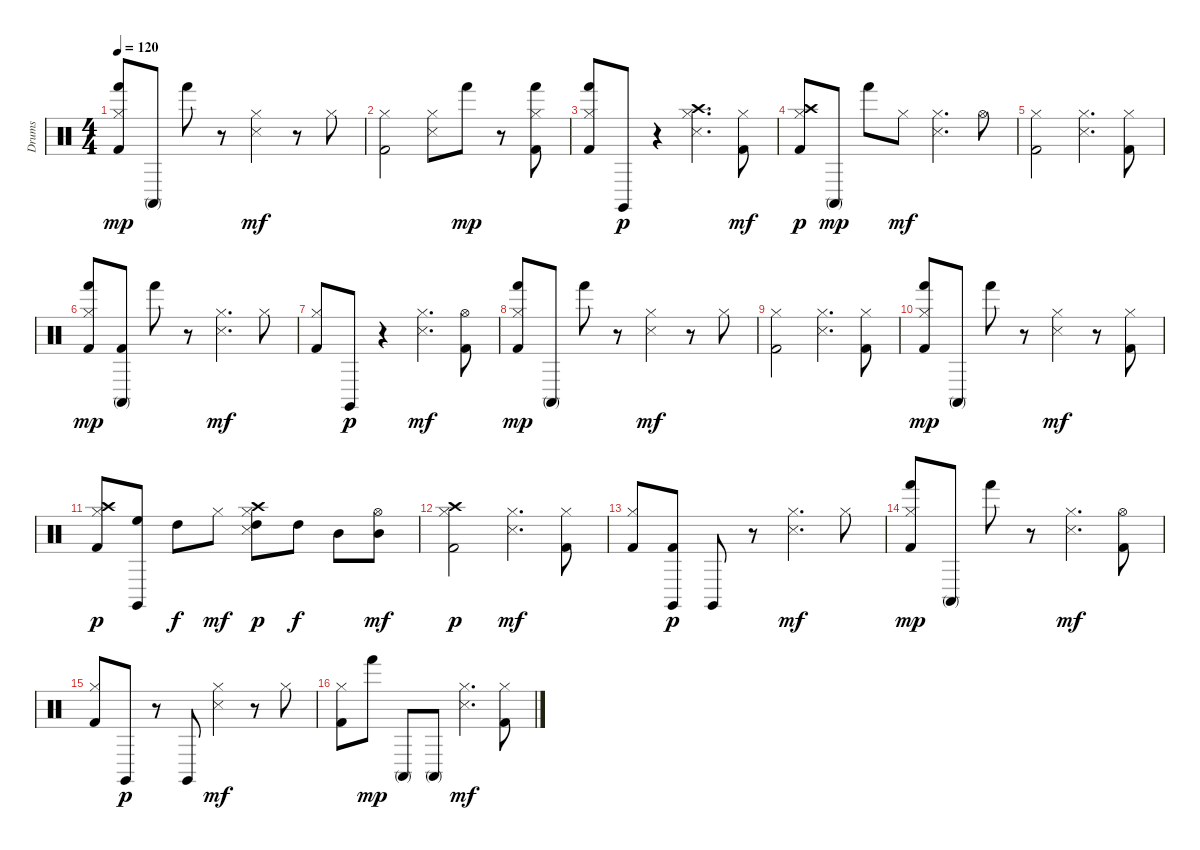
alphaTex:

\track ("Drums" "Drums") {instrument percussion}
\staff {score}
\articulation defaults
\ts (4 4)
\tempo 120
\clef neutral
\ks c
("Kick (hit) 2" "Hi-Hat (closed)" "Hand (hit)").8{dy mp} "Conga high (mute)".8 "Hand (hit)".8 r.8 ("Hi-Hat (closed)" "Snare (side stick) 3").4{dy mf} r.8 "Hi-Hat (closed)".8 |
("Kick (hit) 2" "Hi-Hat (closed)").2 ("Hi-Hat (closed)" "Snare (side stick) 3").8 "Hand (hit)".8{dy mp} r.8 ("Kick (hit) 2" "Hi-Hat (closed)" "Hand (hit)").8 |
("Kick (hit) 2" "Hi-Hat (closed)" "Hand (hit)").8 "Claves (hit)".8{dy p} r.4 ("Hi-Hat (closed)" "Snare (side stick) 3" "Crash high (hit)").4{d} ("Kick (hit) 2" "Hi-Hat (closed)").8{dy mf} |
("Kick (hit) 2" "Hi-Hat (closed)" "Crash high (hit)").8{dy p} "Conga high (mute)".8{dy mp} "Hand (hit)".8 "Hi-Hat (closed)".8{dy mf} ("Hi-Hat (closed)" "Snare (side stick) 3").4{d} "Hi-Hat (open)".8 |
("Kick (hit) 2" "Hi-Hat (closed)").2 ("Hi-Hat (closed)" "Snare (side stick) 3").4{d} ("Kick (hit) 2" "Hi-Hat (closed)").8 |
("Kick (hit) 2" "Hi-Hat (closed)" "Hand (hit)").8{dy mp} ("Kick (hit) 2" "Conga high (mute)").8 "Hand (hit)".8 r.8 ("Hi-Hat (closed)" "Snare (side stick) 3").4{d dy mf} "Hi-Hat (closed)".8 |
("Kick (hit) 2" "Hi-Hat (closed)").8 "Claves (hit)".8{dy p} r.4 ("Hi-Hat (closed)" "Snare (side stick) 3").4{d dy mf} ("Kick (hit) 2" "Hi-Hat (open)").8 |
("Kick (hit) 2" "Hi-Hat (closed)" "Hand (hit)").8{dy mp} "Conga high (mute)".8 "Hand (hit)".8 r.8 ("Hi-Hat (closed)" "Snare (side stick) 3").4{dy mf} r.8 "Hi-Hat (closed)".8 |
("Kick (hit) 2" "Hi-Hat (closed)").2 ("Hi-Hat (closed)" "Snare (side stick) 3").4{d} ("Kick (hit) 2" "Hi-Hat (closed)").8 |
("Kick (hit) 2" "Hi-Hat (closed)" "Hand (hit)").8{dy mp} "Conga high (mute)".8 "Hand (hit)".8 r.8 ("Hi-Hat (closed)" "Snare (side stick) 3").4{dy mf} r.8 ("Kick (hit) 2" "Hi-Hat (closed)").8 |
("Kick (hit) 2" "Hi-Hat (closed)" "Crash high (hit)").8{dy p} ("Claves (hit)" "High Floor Tom (hit)").8 "High Tom (hit)".8{dy f} "Hi-Hat (closed)".8{dy mf} ("Hi-Hat (closed)" "Snare (side stick) 3" "High Tom (hit)" "Crash high (hit)").8{dy p} "High Tom (hit)".8{dy f} "Mid Tom (hit)".8 ("Hi-Hat (open)" "Mid Tom (hit)").8{dy mf} |
("Kick (hit) 2" "Hi-Hat (closed)" "Crash high (hit)").2{dy p} ("Hi-Hat (closed)" "Snare (side stick) 3").4{d dy mf} ("Kick (hit) 2" "Hi-Hat (closed)").8 |
("Kick (hit) 2" "Hi-Hat (closed)").8 ("Kick (hit) 2" "Claves (hit)").8{dy p} "Claves (hit)".8 r.8 ("Hi-Hat (closed)" "Snare (side stick) 3").4{d dy mf} "Hi-Hat (closed)".8 |
("Kick (hit) 2" "Hi-Hat (closed)" "Hand (hit)").8{dy mp} "Conga high (mute)".8 "Hand (hit)".8 r.8 ("Hi-Hat (closed)" "Snare (side stick) 3").4{d dy mf} ("Kick (hit) 2" "Hi-Hat (open)").8 |
("Kick (hit) 2" "Hi-Hat (closed)").8 "Claves (hit)".8{dy p} r.8 "Claves (hit)".8 ("Hi-Hat (closed)" "Snare (side stick) 3").4{dy mf} r.8 "Hi-Hat (closed)".8 |
("Kick (hit) 2" "Hi-Hat (closed)").8 "Hand (hit)".8{dy mp} "Conga high (mute)".8 "Conga high (mute)".8 ("Hi-Hat (closed)" "Snare (side stick) 3").4{d dy mf} ("Kick (hit) 2" "Hi-Hat (closed)").8
